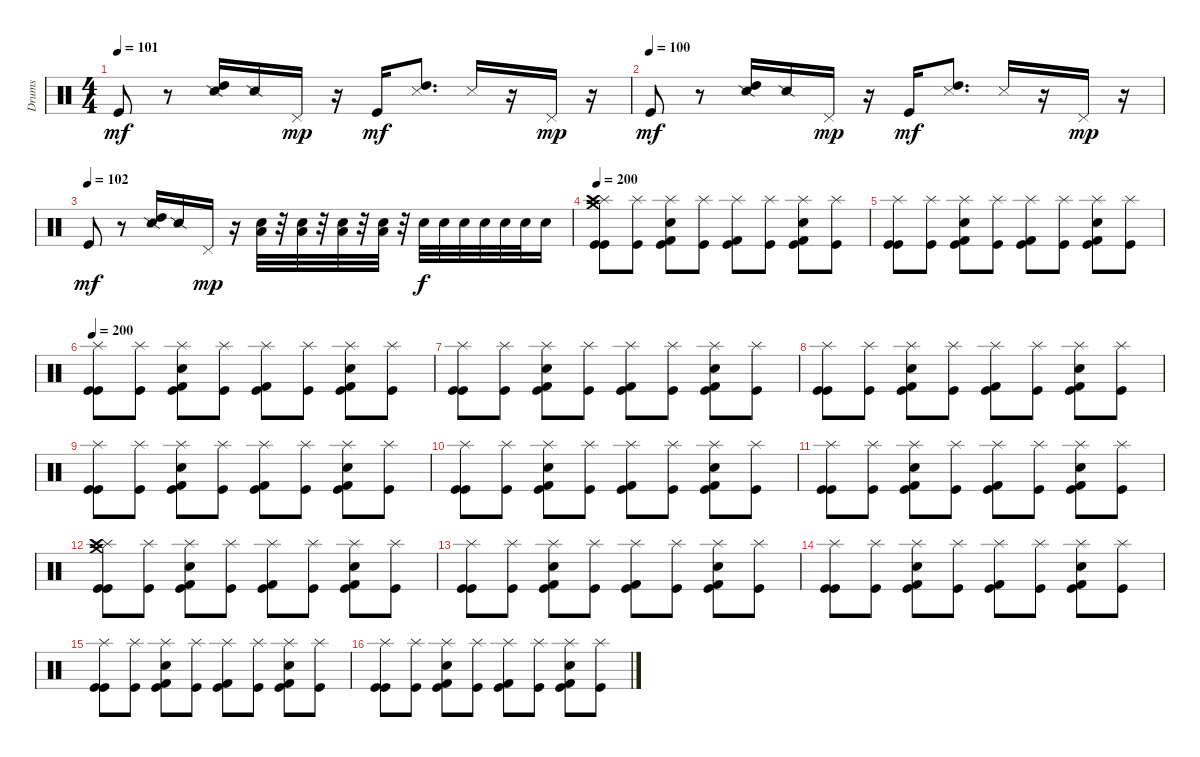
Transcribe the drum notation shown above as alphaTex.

\track ("Drums" "Drums") {instrument percussion}
\staff {score}
\articulation defaults
\ts (4 4)
\tempo 101
\clef neutral
\ks c "Kick (hit)".8{dy mf}
r.8 ("High Tom (hit)" "Snare (side stick) 2").16 "Snare (side stick) 2".16 "Pedal Hi-Hat (hit)".16{dy mp} r.16 "Kick (hit)".16{dy mf} ("High Tom (hit)" "Snare (side stick) 3").8{d} "Snare (side stick) 3".16 r.16 "Pedal Hi-Hat (hit)".16{dy mp} r.16 |
\tempo (100)
"Kick (hit)".8{dy mf} r.8 ("High Tom (hit)" "Snare (side stick) 2").16 "Snare (side stick) 2".16 "Pedal Hi-Hat (hit)".16{dy mp} r.16 "Kick (hit)".16{dy mf} ("High Tom (hit)" "Snare (side stick) 3").8{d} "Snare (side stick) 3".16 r.16 "Pedal Hi-Hat (hit)".16{dy mp} r.16 |
\tempo (102)
"Kick (hit)".8{dy mf} r.8 ("High Tom (hit)" "Snare (side stick) 2").16 "Snare (side stick) 2".16 "Pedal Hi-Hat (hit)".16{dy mp} r.16 ("Snare (hit) 2" "Low Tom (hit)").32 r.32 ("Snare (hit) 2" "Low Tom (hit)").32 r.32 ("Snare (hit) 2" "Low Tom (hit)").32 r.32 ("Snare (hit) 2" "Low Tom (hit)").32 r.32 "Snare (hit) 2".32{dy f} "Snare (hit) 2".32 "Snare (hit) 2".32 "Snare (hit) 2".32 "Snare (hit) 2".32 "Snare (hit) 2".32 "Snare (hit) 2".16 |
\tempo 200
("Splash (hit)" "Crash high (hit)" "Crash medium (hit)" "Kick (hit)" "Kick (hit)").8 ("Splash (hit)" "Kick (hit)").8 ("Splash (hit)" "Snare (hit) 2" "Kick (hit) 2" "Kick (hit)").8 ("Splash (hit)" "Kick (hit)").8 ("Splash (hit)" "Kick (hit) 2" "Kick (hit)").8 ("Splash (hit)" "Kick (hit)").8 ("Splash (hit)" "Snare (hit) 2" "Kick (hit) 2" "Kick (hit)").8 ("Splash (hit)" "Kick (hit)").8 |
("Splash (hit)" "Kick (hit)" "Kick (hit)").8 ("Splash (hit)" "Kick (hit)").8 ("Splash (hit)" "Snare (hit) 2" "Kick (hit) 2" "Kick (hit)").8 ("Splash (hit)" "Kick (hit)").8 ("Splash (hit)" "Kick (hit) 2" "Kick (hit)").8 ("Splash (hit)" "Kick (hit)").8 ("Splash (hit)" "Snare (hit) 2" "Kick (hit) 2" "Kick (hit)").8 ("Splash (hit)" "Kick (hit)").8 |
\tempo 200
("Splash (hit)" "Kick (hit)" "Kick (hit)").8 ("Splash (hit)" "Kick (hit)").8 ("Splash (hit)" "Snare (hit) 2" "Kick (hit) 2" "Kick (hit)").8 ("Splash (hit)" "Kick (hit)").8 ("Splash (hit)" "Kick (hit) 2" "Kick (hit)").8 ("Splash (hit)" "Kick (hit)").8 ("Splash (hit)" "Snare (hit) 2" "Kick (hit) 2" "Kick (hit)").8 ("Splash (hit)" "Kick (hit)").8 |
("Splash (hit)" "Kick (hit)" "Kick (hit)").8 ("Splash (hit)" "Kick (hit)").8 ("Splash (hit)" "Snare (hit) 2" "Kick (hit) 2" "Kick (hit)").8 ("Splash (hit)" "Kick (hit)").8 ("Splash (hit)" "Kick (hit) 2" "Kick (hit)").8 ("Splash (hit)" "Kick (hit)").8 ("Splash (hit)" "Snare (hit) 2" "Kick (hit) 2" "Kick (hit)").8 ("Splash (hit)" "Kick (hit)").8 |
("Splash (hit)" "Kick (hit)" "Kick (hit)").8 ("Splash (hit)" "Kick (hit)").8 ("Splash (hit)" "Snare (hit) 2" "Kick (hit) 2" "Kick (hit)").8 ("Splash (hit)" "Kick (hit)").8 ("Splash (hit)" "Kick (hit) 2" "Kick (hit)").8 ("Splash (hit)" "Kick (hit)").8 ("Splash (hit)" "Snare (hit) 2" "Kick (hit) 2" "Kick (hit)").8 ("Splash (hit)" "Kick (hit)").8 |
("Splash (hit)" "Kick (hit)" "Kick (hit)").8 ("Splash (hit)" "Kick (hit)").8 ("Splash (hit)" "Snare (hit) 2" "Kick (hit) 2" "Kick (hit)").8 ("Splash (hit)" "Kick (hit)").8 ("Splash (hit)" "Kick (hit) 2" "Kick (hit)").8 ("Splash (hit)" "Kick (hit)").8 ("Splash (hit)" "Snare (hit) 2" "Kick (hit) 2" "Kick (hit)").8 ("Splash (hit)" "Kick (hit)").8 |
("Splash (hit)" "Kick (hit)" "Kick (hit)").8 ("Splash (hit)" "Kick (hit)").8 ("Splash (hit)" "Snare (hit) 2" "Kick (hit) 2" "Kick (hit)").8 ("Splash (hit)" "Kick (hit)").8 ("Splash (hit)" "Kick (hit) 2" "Kick (hit)").8 ("Splash (hit)" "Kick (hit)").8 ("Splash (hit)" "Snare (hit) 2" "Kick (hit) 2" "Kick (hit)").8 ("Splash (hit)" "Kick (hit)").8 |
("Splash (hit)" "Kick (hit)" "Kick (hit)").8 ("Splash (hit)" "Kick (hit)").8 ("Splash (hit)" "Snare (hit) 2" "Kick (hit) 2" "Kick (hit)").8 ("Splash (hit)" "Kick (hit)").8 ("Splash (hit)" "Kick (hit) 2" "Kick (hit)").8 ("Splash (hit)" "Kick (hit)").8 ("Splash (hit)" "Snare (hit) 2" "Kick (hit) 2" "Kick (hit)").8 ("Splash (hit)" "Kick (hit)").8 |
("Splash (hit)" "Crash high (hit)" "Crash medium (hit)" "Kick (hit)" "Kick (hit)").8 ("Splash (hit)" "Kick (hit)").8 ("Splash (hit)" "Snare (hit) 2" "Kick (hit) 2" "Kick (hit)").8 ("Splash (hit)" "Kick (hit)").8 ("Splash (hit)" "Kick (hit) 2" "Kick (hit)").8 ("Splash (hit)" "Kick (hit)").8 ("Splash (hit)" "Snare (hit) 2" "Kick (hit) 2" "Kick (hit)").8 ("Splash (hit)" "Kick (hit)").8 |
("Splash (hit)" "Kick (hit)" "Kick (hit)").8 ("Splash (hit)" "Kick (hit)").8 ("Splash (hit)" "Snare (hit) 2" "Kick (hit) 2" "Kick (hit)").8 ("Splash (hit)" "Kick (hit)").8 ("Splash (hit)" "Kick (hit) 2" "Kick (hit)").8 ("Splash (hit)" "Kick (hit)").8 ("Splash (hit)" "Snare (hit) 2" "Kick (hit) 2" "Kick (hit)").8 ("Splash (hit)" "Kick (hit)").8 |
("Splash (hit)" "Kick (hit)" "Kick (hit)").8 ("Splash (hit)" "Kick (hit)").8 ("Splash (hit)" "Snare (hit) 2" "Kick (hit) 2" "Kick (hit)").8 ("Splash (hit)" "Kick (hit)").8 ("Splash (hit)" "Kick (hit) 2" "Kick (hit)").8 ("Splash (hit)" "Kick (hit)").8 ("Splash (hit)" "Snare (hit) 2" "Kick (hit) 2" "Kick (hit)").8 ("Splash (hit)" "Kick (hit)").8 |
("Splash (hit)" "Kick (hit)" "Kick (hit)").8 ("Splash (hit)" "Kick (hit)").8 ("Splash (hit)" "Snare (hit) 2" "Kick (hit) 2" "Kick (hit)").8 ("Splash (hit)" "Kick (hit)").8 ("Splash (hit)" "Kick (hit) 2" "Kick (hit)").8 ("Splash (hit)" "Kick (hit)").8 ("Splash (hit)" "Snare (hit) 2" "Kick (hit) 2" "Kick (hit)").8 ("Splash (hit)" "Kick (hit)").8 |
("Splash (hit)" "Kick (hit)" "Kick (hit)").8 ("Splash (hit)" "Kick (hit)").8 ("Splash (hit)" "Snare (hit) 2" "Kick (hit) 2" "Kick (hit)").8 ("Splash (hit)" "Kick (hit)").8 ("Splash (hit)" "Kick (hit) 2" "Kick (hit)").8 ("Splash (hit)" "Kick (hit)").8 ("Splash (hit)" "Snare (hit) 2" "Kick (hit) 2" "Kick (hit)").8 ("Splash (hit)" "Kick (hit)").8
